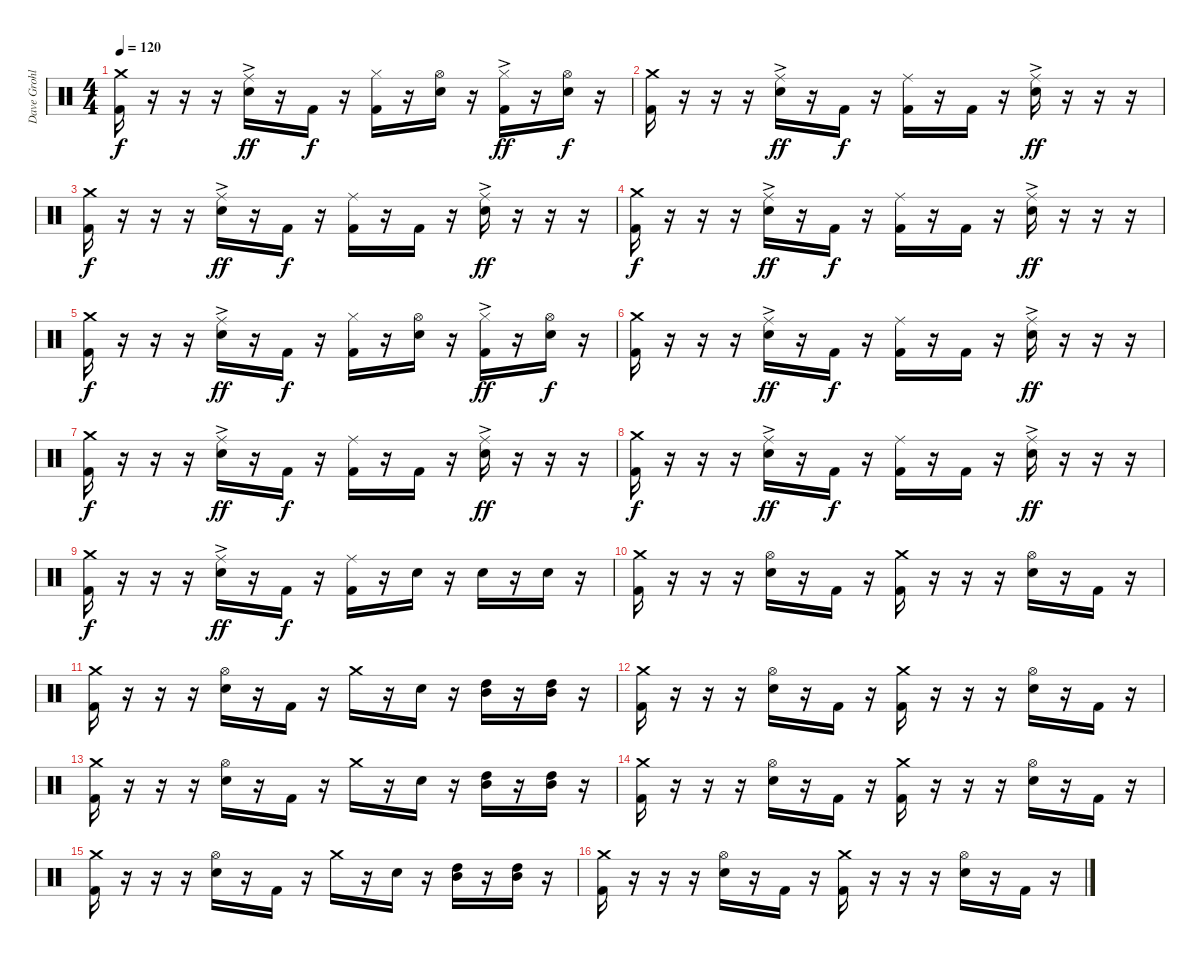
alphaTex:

\track ("Dave Grohl" "Dave Grohl") {instrument percussion}
\staff {score}
\articulation defaults
\ts (4 4)
\tempo 120
\clef neutral
\ks c
("Crash medium (hit)" "Kick (hit) 2").16{dy f} r.16 r.16 r.16 ("Ride (middle)"{ac} "Electric Snare (hit)").16{dy ff} r.16 "Kick (hit) 2".16{dy f} r.16 ("Hi-Hat (closed)" "Kick (hit) 2").16 r.16 ("Hi-Hat (open)" "Electric Snare (hit)").16 r.16 ("Hi-Hat (closed)"{ac} "Kick (hit) 2").16{dy ff} r.16 ("Hi-Hat (open)" "Electric Snare (hit)").16{dy f} r.16 |
("Crash medium (hit)" "Kick (hit) 2").16 r.16 r.16 r.16 ("Ride (middle)"{ac} "Electric Snare (hit)").16{dy ff} r.16 "Kick (hit) 2".16{dy f} r.16 ("Ride (middle)" "Kick (hit) 2").16 r.16 "Kick (hit) 2".16 r.16 ("Ride (middle)"{ac} "Electric Snare (hit)").16{dy ff} r.16 r.16 r.16 |
("Crash medium (hit)" "Kick (hit) 2").16{dy f} r.16 r.16 r.16 ("Ride (middle)"{ac} "Electric Snare (hit)").16{dy ff} r.16 "Kick (hit) 2".16{dy f} r.16 ("Ride (middle)" "Kick (hit) 2").16 r.16 "Kick (hit) 2".16 r.16 ("Ride (middle)"{ac} "Electric Snare (hit)").16{dy ff} r.16 r.16 r.16 |
("Crash medium (hit)" "Kick (hit) 2").16{dy f} r.16 r.16 r.16 ("Ride (middle)"{ac} "Electric Snare (hit)").16{dy ff} r.16 "Kick (hit) 2".16{dy f} r.16 ("Ride (middle)" "Kick (hit) 2").16 r.16 "Kick (hit) 2".16 r.16 ("Ride (middle)"{ac} "Electric Snare (hit)").16{dy ff} r.16 r.16 r.16 |
("Crash medium (hit)" "Kick (hit) 2").16{dy f} r.16 r.16 r.16 ("Ride (middle)"{ac} "Electric Snare (hit)").16{dy ff} r.16 "Kick (hit) 2".16{dy f} r.16 ("Hi-Hat (closed)" "Kick (hit) 2").16 r.16 ("Hi-Hat (open)" "Electric Snare (hit)").16 r.16 ("Hi-Hat (closed)"{ac} "Kick (hit) 2").16{dy ff} r.16 ("Hi-Hat (open)" "Electric Snare (hit)").16{dy f} r.16 |
("Crash medium (hit)" "Kick (hit) 2").16 r.16 r.16 r.16 ("Ride (middle)"{ac} "Electric Snare (hit)").16{dy ff} r.16 "Kick (hit) 2".16{dy f} r.16 ("Ride (middle)" "Kick (hit) 2").16 r.16 "Kick (hit) 2".16 r.16 ("Ride (middle)"{ac} "Electric Snare (hit)").16{dy ff} r.16 r.16 r.16 |
("Crash medium (hit)" "Kick (hit) 2").16{dy f} r.16 r.16 r.16 ("Ride (middle)"{ac} "Electric Snare (hit)").16{dy ff} r.16 "Kick (hit) 2".16{dy f} r.16 ("Ride (middle)" "Kick (hit) 2").16 r.16 "Kick (hit) 2".16 r.16 ("Ride (middle)"{ac} "Electric Snare (hit)").16{dy ff} r.16 r.16 r.16 |
("Crash medium (hit)" "Kick (hit) 2").16{dy f} r.16 r.16 r.16 ("Ride (middle)"{ac} "Electric Snare (hit)").16{dy ff} r.16 "Kick (hit) 2".16{dy f} r.16 ("Ride (middle)" "Kick (hit) 2").16 r.16 "Kick (hit) 2".16 r.16 ("Ride (middle)"{ac} "Electric Snare (hit)").16{dy ff} r.16 r.16 r.16 |
("Crash medium (hit)" "Kick (hit) 2").16{dy f} r.16 r.16 r.16 ("Ride (middle)"{ac} "Electric Snare (hit)").16{dy ff} r.16 "Kick (hit) 2".16{dy f} r.16 ("Ride (middle)" "Kick (hit) 2").16 r.16 "Electric Snare (hit)".16 r.16 "Electric Snare (hit)".16 r.16 "Electric Snare (hit)".16 r.16 |
("Crash medium (hit)" "Kick (hit) 2").16 r.16 r.16 r.16 ("Hi-Hat (open)" "Electric Snare (hit)").16 r.16 "Kick (hit) 2".16 r.16 ("Crash medium (hit)" "Kick (hit) 2").16 r.16 r.16 r.16 ("Hi-Hat (open)" "Electric Snare (hit)").16 r.16 "Kick (hit) 2".16 r.16 |
("Crash medium (hit)" "Kick (hit) 2").16 r.16 r.16 r.16 ("Hi-Hat (open)" "Electric Snare (hit)").16 r.16 "Kick (hit) 2".16 r.16 "Crash medium (hit)".16 r.16 "Electric Snare (hit)".16 r.16 ("High Tom (hit)" "Mid Tom (hit)").16 r.16 ("High Tom (hit)" "Mid Tom (hit)").16 r.16 |
("Crash medium (hit)" "Kick (hit) 2").16 r.16 r.16 r.16 ("Hi-Hat (open)" "Electric Snare (hit)").16 r.16 "Kick (hit) 2".16 r.16 ("Crash medium (hit)" "Kick (hit) 2").16 r.16 r.16 r.16 ("Hi-Hat (open)" "Electric Snare (hit)").16 r.16 "Kick (hit) 2".16 r.16 |
("Crash medium (hit)" "Kick (hit) 2").16 r.16 r.16 r.16 ("Hi-Hat (open)" "Electric Snare (hit)").16 r.16 "Kick (hit) 2".16 r.16 "Crash medium (hit)".16 r.16 "Electric Snare (hit)".16 r.16 ("High Tom (hit)" "Mid Tom (hit)").16 r.16 ("High Tom (hit)" "Mid Tom (hit)").16 r.16 |
("Crash medium (hit)" "Kick (hit) 2").16 r.16 r.16 r.16 ("Hi-Hat (open)" "Electric Snare (hit)").16 r.16 "Kick (hit) 2".16 r.16 ("Crash medium (hit)" "Kick (hit) 2").16 r.16 r.16 r.16 ("Hi-Hat (open)" "Electric Snare (hit)").16 r.16 "Kick (hit) 2".16 r.16 |
("Crash medium (hit)" "Kick (hit) 2").16 r.16 r.16 r.16 ("Hi-Hat (open)" "Electric Snare (hit)").16 r.16 "Kick (hit) 2".16 r.16 "Crash medium (hit)".16 r.16 "Electric Snare (hit)".16 r.16 ("High Tom (hit)" "Mid Tom (hit)").16 r.16 ("High Tom (hit)" "Mid Tom (hit)").16 r.16 |
("Crash medium (hit)" "Kick (hit) 2").16 r.16 r.16 r.16 ("Hi-Hat (open)" "Electric Snare (hit)").16 r.16 "Kick (hit) 2".16 r.16 ("Crash medium (hit)" "Kick (hit) 2").16 r.16 r.16 r.16 ("Hi-Hat (open)" "Electric Snare (hit)").16 r.16 "Kick (hit) 2".16 r.16
